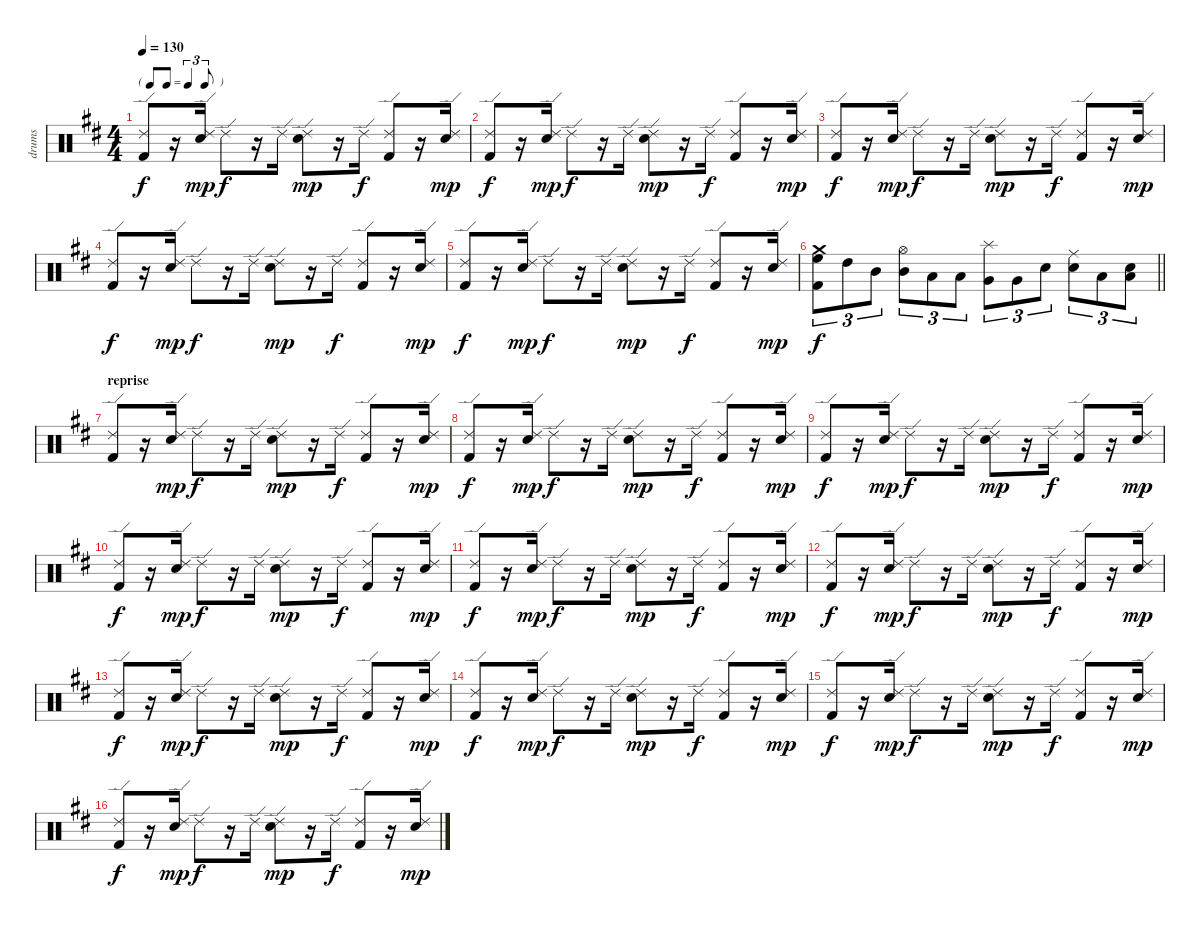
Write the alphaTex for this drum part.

\track ("drums" "drums") {instrument percussion}
\staff {score}
\articulation defaults
\ts (4 4)
\tf triplet8th
\tempo 130
\clef neutral
\ks d
("Ride (edge) 2" "Kick (hit) 2").8{dy f} r.16 ("Ride (edge) 2" "Electric Snare (hit)").16{dy mp} "Ride (edge) 2".8{dy f} r.16 "Ride (edge) 2".16 ("Ride (edge) 2" "Electric Snare (hit)").8{dy mp} r.16 "Ride (edge) 2".16{dy f} ("Ride (edge) 2" "Kick (hit) 2").8 r.16 ("Ride (edge) 2" "Electric Snare (hit)").16{dy mp} |
("Ride (edge) 2" "Kick (hit) 2").8{dy f} r.16 ("Ride (edge) 2" "Electric Snare (hit)").16{dy mp} "Ride (edge) 2".8{dy f} r.16 "Ride (edge) 2".16 ("Ride (edge) 2" "Electric Snare (hit)").8{dy mp} r.16 "Ride (edge) 2".16{dy f} ("Ride (edge) 2" "Kick (hit) 2").8 r.16 ("Ride (edge) 2" "Electric Snare (hit)").16{dy mp} |
("Ride (edge) 2" "Kick (hit) 2").8{dy f} r.16 ("Ride (edge) 2" "Electric Snare (hit)").16{dy mp} "Ride (edge) 2".8{dy f} r.16 "Ride (edge) 2".16 ("Ride (edge) 2" "Electric Snare (hit)").8{dy mp} r.16 "Ride (edge) 2".16{dy f} ("Ride (edge) 2" "Kick (hit) 2").8 r.16 ("Ride (edge) 2" "Electric Snare (hit)").16{dy mp} |
("Ride (edge) 2" "Kick (hit) 2").8{dy f} r.16 ("Ride (edge) 2" "Electric Snare (hit)").16{dy mp} "Ride (edge) 2".8{dy f} r.16 "Ride (edge) 2".16 ("Ride (edge) 2" "Electric Snare (hit)").8{dy mp} r.16 "Ride (edge) 2".16{dy f} ("Ride (edge) 2" "Kick (hit) 2").8 r.16 ("Ride (edge) 2" "Electric Snare (hit)").16{dy mp} |
("Ride (edge) 2" "Kick (hit) 2").8{dy f} r.16 ("Ride (edge) 2" "Electric Snare (hit)").16{dy mp} "Ride (edge) 2".8{dy f} r.16 "Ride (edge) 2".16 ("Ride (edge) 2" "Electric Snare (hit)").8{dy mp} r.16 "Ride (edge) 2".16{dy f} ("Ride (edge) 2" "Kick (hit) 2").8 r.16 ("Ride (edge) 2" "Electric Snare (hit)").16{dy mp} |
\barLineRight lightlight
("Crash medium (hit)" "High Floor Tom (hit)" "Kick (hit) 2").8{tu (3 2) dy f} "High Tom (hit)".8{tu (3 2)} "Mid Tom (hit)".8{tu (3 2)} ("Hi-Hat (open)" "Mid Tom (hit)").8{tu (3 2)} "Low Tom (hit)".8{tu (3 2)} "Low Tom (hit)".8{tu (3 2)} ("Splash (hit)" "Very Low Tom (hit)").8{tu (3 2)} "Very Low Tom (hit)".8{tu (3 2)} "Electric Snare (hit)".8{tu (3 2)} ("Ride (middle)" "Electric Snare (hit)").8{tu (3 2)} "Low Floor Tom (hit)".8{tu (3 2)} ("Electric Snare (hit)" "Low Floor Tom (hit)").8{tu (3 2)} |
\section ("" "reprise")
("Ride (edge) 2" "Kick (hit) 2").8 r.16 ("Ride (edge) 2" "Electric Snare (hit)").16{dy mp} "Ride (edge) 2".8{dy f} r.16 "Ride (edge) 2".16 ("Ride (edge) 2" "Electric Snare (hit)").8{dy mp} r.16 "Ride (edge) 2".16{dy f} ("Ride (edge) 2" "Kick (hit) 2").8 r.16 ("Ride (edge) 2" "Electric Snare (hit)").16{dy mp} |
("Ride (edge) 2" "Kick (hit) 2").8{dy f} r.16 ("Ride (edge) 2" "Electric Snare (hit)").16{dy mp} "Ride (edge) 2".8{dy f} r.16 "Ride (edge) 2".16 ("Ride (edge) 2" "Electric Snare (hit)").8{dy mp} r.16 "Ride (edge) 2".16{dy f} ("Ride (edge) 2" "Kick (hit) 2").8 r.16 ("Ride (edge) 2" "Electric Snare (hit)").16{dy mp} |
("Ride (edge) 2" "Kick (hit) 2").8{dy f} r.16 ("Ride (edge) 2" "Electric Snare (hit)").16{dy mp} "Ride (edge) 2".8{dy f} r.16 "Ride (edge) 2".16 ("Ride (edge) 2" "Electric Snare (hit)").8{dy mp} r.16 "Ride (edge) 2".16{dy f} ("Ride (edge) 2" "Kick (hit) 2").8 r.16 ("Ride (edge) 2" "Electric Snare (hit)").16{dy mp} |
("Ride (edge) 2" "Kick (hit) 2").8{dy f} r.16 ("Ride (edge) 2" "Electric Snare (hit)").16{dy mp} "Ride (edge) 2".8{dy f} r.16 "Ride (edge) 2".16 ("Ride (edge) 2" "Electric Snare (hit)").8{dy mp} r.16 "Ride (edge) 2".16{dy f} ("Ride (edge) 2" "Kick (hit) 2").8 r.16 ("Ride (edge) 2" "Electric Snare (hit)").16{dy mp} |
("Ride (edge) 2" "Kick (hit) 2").8{dy f} r.16 ("Ride (edge) 2" "Electric Snare (hit)").16{dy mp} "Ride (edge) 2".8{dy f} r.16 "Ride (edge) 2".16 ("Ride (edge) 2" "Electric Snare (hit)").8{dy mp} r.16 "Ride (edge) 2".16{dy f} ("Ride (edge) 2" "Kick (hit) 2").8 r.16 ("Ride (edge) 2" "Electric Snare (hit)").16{dy mp} |
("Ride (edge) 2" "Kick (hit) 2").8{dy f} r.16 ("Ride (edge) 2" "Electric Snare (hit)").16{dy mp} "Ride (edge) 2".8{dy f} r.16 "Ride (edge) 2".16 ("Ride (edge) 2" "Electric Snare (hit)").8{dy mp} r.16 "Ride (edge) 2".16{dy f} ("Ride (edge) 2" "Kick (hit) 2").8 r.16 ("Ride (edge) 2" "Electric Snare (hit)").16{dy mp} |
("Ride (edge) 2" "Kick (hit) 2").8{dy f} r.16 ("Ride (edge) 2" "Electric Snare (hit)").16{dy mp} "Ride (edge) 2".8{dy f} r.16 "Ride (edge) 2".16 ("Ride (edge) 2" "Electric Snare (hit)").8{dy mp} r.16 "Ride (edge) 2".16{dy f} ("Ride (edge) 2" "Kick (hit) 2").8 r.16 ("Ride (edge) 2" "Electric Snare (hit)").16{dy mp} |
("Ride (edge) 2" "Kick (hit) 2").8{dy f} r.16 ("Ride (edge) 2" "Electric Snare (hit)").16{dy mp} "Ride (edge) 2".8{dy f} r.16 "Ride (edge) 2".16 ("Ride (edge) 2" "Electric Snare (hit)").8{dy mp} r.16 "Ride (edge) 2".16{dy f} ("Ride (edge) 2" "Kick (hit) 2").8 r.16 ("Ride (edge) 2" "Electric Snare (hit)").16{dy mp} |
("Ride (edge) 2" "Kick (hit) 2").8{dy f} r.16 ("Ride (edge) 2" "Electric Snare (hit)").16{dy mp} "Ride (edge) 2".8{dy f} r.16 "Ride (edge) 2".16 ("Ride (edge) 2" "Electric Snare (hit)").8{dy mp} r.16 "Ride (edge) 2".16{dy f} ("Ride (edge) 2" "Kick (hit) 2").8 r.16 ("Ride (edge) 2" "Electric Snare (hit)").16{dy mp} |
("Ride (edge) 2" "Kick (hit) 2").8{dy f} r.16 ("Ride (edge) 2" "Electric Snare (hit)").16{dy mp} "Ride (edge) 2".8{dy f} r.16 "Ride (edge) 2".16 ("Ride (edge) 2" "Electric Snare (hit)").8{dy mp} r.16 "Ride (edge) 2".16{dy f} ("Ride (edge) 2" "Kick (hit) 2").8 r.16 ("Ride (edge) 2" "Electric Snare (hit)").16{dy mp}
